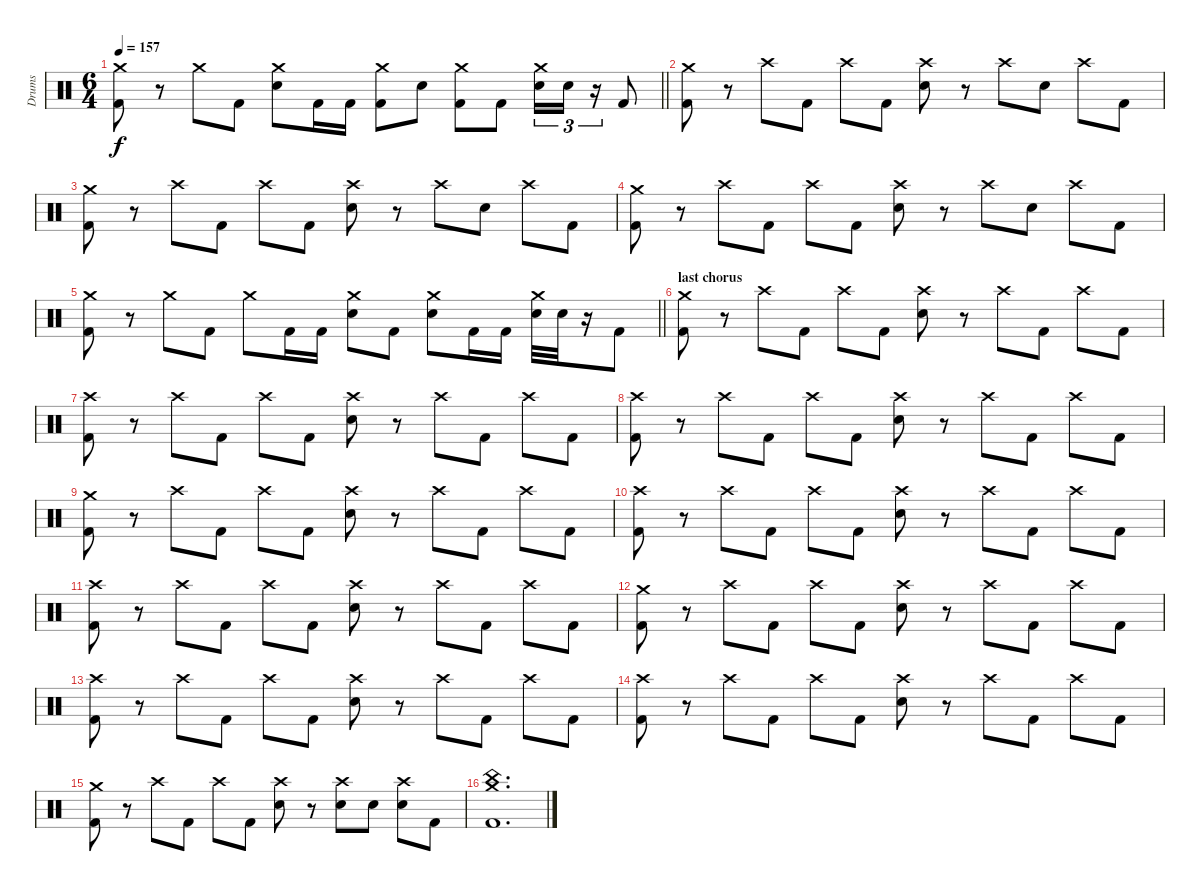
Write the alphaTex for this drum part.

\track ("Drums" "Drums") {instrument percussion}
\staff {score}
\articulation defaults
\ts (6 4)
\tempo 157
\clef neutral
\barLineRight lightlight
\ks c
("Crash medium (hit)" "Kick (hit) 2").8{dy f} r.8 "Crash medium (hit)".8 "Kick (hit) 2".8 ("Crash medium (hit)" "Electric Snare (hit)").8 "Kick (hit) 2".16 "Kick (hit) 2".16 ("Crash medium (hit)" "Kick (hit) 2").8 "Electric Snare (hit)".8 ("Crash medium (hit)" "Kick (hit) 2").8 "Kick (hit) 2".8 ("Crash medium (hit)" "Electric Snare (hit)").16{tu (3 2)} "Electric Snare (hit)".16{tu (3 2)} r.16{tu (3 2)} "Kick (hit) 2".8 |
("Crash medium (hit)" "Kick (hit) 2").8 r.8 "Crash high (hit)".8 "Kick (hit) 2".8 "Crash high (hit)".8 "Kick (hit) 2".8 ("Crash high (hit)" "Electric Snare (hit)").8 r.8 "Crash high (hit)".8 "Electric Snare (hit)".8 "Crash high (hit)".8 "Kick (hit) 2".8 |
("Crash medium (hit)" "Kick (hit) 2").8 r.8 "Crash high (hit)".8 "Kick (hit) 2".8 "Crash high (hit)".8 "Kick (hit) 2".8 ("Crash high (hit)" "Electric Snare (hit)").8 r.8 "Crash high (hit)".8 "Electric Snare (hit)".8 "Crash high (hit)".8 "Kick (hit) 2".8 |
("Crash medium (hit)" "Kick (hit) 2").8 r.8 "Crash high (hit)".8 "Kick (hit) 2".8 "Crash high (hit)".8 "Kick (hit) 2".8 ("Crash high (hit)" "Electric Snare (hit)").8 r.8 "Crash high (hit)".8 "Electric Snare (hit)".8 "Crash high (hit)".8 "Kick (hit) 2".8 |
\barLineRight lightlight
("Crash medium (hit)" "Kick (hit) 2").8 r.8 "Crash medium (hit)".8 "Kick (hit) 2".8 "Crash medium (hit)".8 "Kick (hit) 2".16 "Kick (hit) 2".16 ("Crash medium (hit)" "Electric Snare (hit)").8 "Kick (hit) 2".8 ("Crash medium (hit)" "Electric Snare (hit)").8 "Kick (hit) 2".16 "Kick (hit) 2".16 ("Crash medium (hit)" "Electric Snare (hit)").32 "Electric Snare (hit)".32 r.16 "Kick (hit) 2".8 |
\section ("" "last chorus")
("Crash medium (hit)" "Kick (hit) 2").8 r.8 "Crash high (hit)".8 "Kick (hit) 2".8 "Crash high (hit)".8 "Kick (hit) 2".8 ("Crash high (hit)" "Electric Snare (hit)").8 r.8 "Crash high (hit)".8 "Kick (hit) 2".8 "Crash high (hit)".8 "Kick (hit) 2".8 |
("Crash high (hit)" "Kick (hit) 2").8 r.8 "Crash high (hit)".8 "Kick (hit) 2".8 "Crash high (hit)".8 "Kick (hit) 2".8 ("Crash high (hit)" "Electric Snare (hit)").8 r.8 "Crash high (hit)".8 "Kick (hit) 2".8 "Crash high (hit)".8 "Kick (hit) 2".8 |
("Crash high (hit)" "Kick (hit) 2").8 r.8 "Crash high (hit)".8 "Kick (hit) 2".8 "Crash high (hit)".8 "Kick (hit) 2".8 ("Crash high (hit)" "Electric Snare (hit)").8 r.8 "Crash high (hit)".8 "Kick (hit) 2".8 "Crash high (hit)".8 "Kick (hit) 2".8 |
("Crash medium (hit)" "Kick (hit) 2").8 r.8 "Crash high (hit)".8 "Kick (hit) 2".8 "Crash high (hit)".8 "Kick (hit) 2".8 ("Crash high (hit)" "Electric Snare (hit)").8 r.8 "Crash high (hit)".8 "Kick (hit) 2".8 "Crash high (hit)".8 "Kick (hit) 2".8 |
("Crash high (hit)" "Kick (hit) 2").8 r.8 "Crash high (hit)".8 "Kick (hit) 2".8 "Crash high (hit)".8 "Kick (hit) 2".8 ("Crash high (hit)" "Electric Snare (hit)").8 r.8 "Crash high (hit)".8 "Kick (hit) 2".8 "Crash high (hit)".8 "Kick (hit) 2".8 |
("Crash high (hit)" "Kick (hit) 2").8 r.8 "Crash high (hit)".8 "Kick (hit) 2".8 "Crash high (hit)".8 "Kick (hit) 2".8 ("Crash high (hit)" "Electric Snare (hit)").8 r.8 "Crash high (hit)".8 "Kick (hit) 2".8 "Crash high (hit)".8 "Kick (hit) 2".8 |
("Crash medium (hit)" "Kick (hit) 2").8 r.8 "Crash high (hit)".8 "Kick (hit) 2".8 "Crash high (hit)".8 "Kick (hit) 2".8 ("Crash high (hit)" "Electric Snare (hit)").8 r.8 "Crash high (hit)".8 "Kick (hit) 2".8 "Crash high (hit)".8 "Kick (hit) 2".8 |
("Crash high (hit)" "Kick (hit) 2").8 r.8 "Crash high (hit)".8 "Kick (hit) 2".8 "Crash high (hit)".8 "Kick (hit) 2".8 ("Crash high (hit)" "Electric Snare (hit)").8 r.8 "Crash high (hit)".8 "Kick (hit) 2".8 "Crash high (hit)".8 "Kick (hit) 2".8 |
("Crash high (hit)" "Kick (hit) 2").8 r.8 "Crash high (hit)".8 "Kick (hit) 2".8 "Crash high (hit)".8 "Kick (hit) 2".8 ("Crash high (hit)" "Electric Snare (hit)").8 r.8 "Crash high (hit)".8 "Kick (hit) 2".8 "Crash high (hit)".8 "Kick (hit) 2".8 |
("Crash medium (hit)" "Kick (hit) 2").8 r.8 "Crash high (hit)".8 "Kick (hit) 2".8 "Crash high (hit)".8 "Kick (hit) 2".8 ("Crash high (hit)" "Electric Snare (hit)").8 r.8 ("Crash high (hit)" "Electric Snare (hit)").8 "Electric Snare (hit)".8 ("Crash high (hit)" "Electric Snare (hit)").8 "Kick (hit) 2".8 |
("China (hit)" "Crash medium (hit)" "Kick (hit) 2").1{d}
